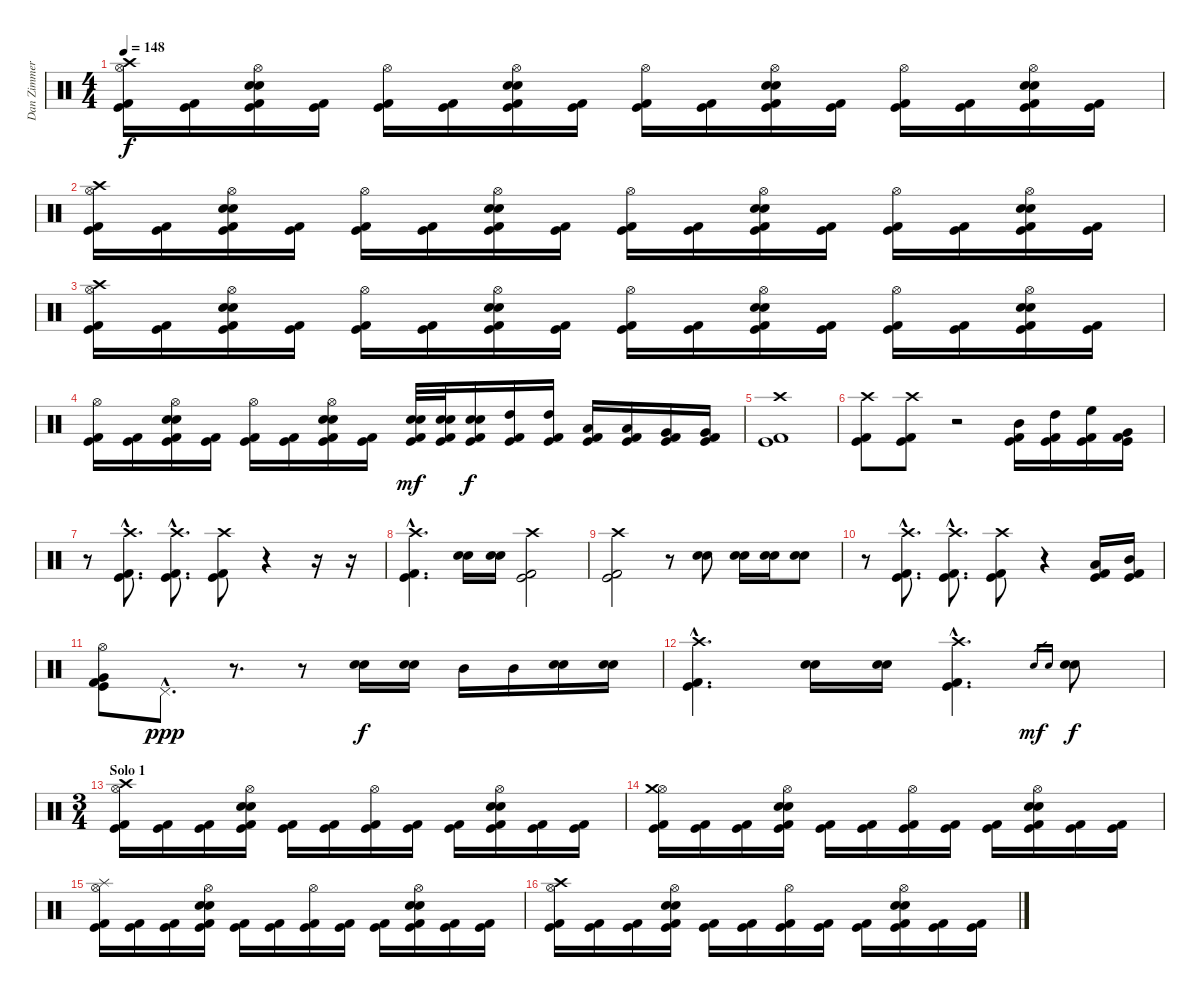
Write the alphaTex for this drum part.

\track ("Dan Zimmerman<Drum>" "Dan Zimmer") {instrument percussion}
\staff {score}
\articulation defaults
\ts (4 4)
\tempo 148
\clef neutral
\ks c
("Hi-Hat (open)" "Crash high (hit)" "Kick (hit) 2" "Kick (hit)").16{dy f} ("Kick (hit) 2" "Kick (hit)").16 ("Hi-Hat (open)" "Snare (hit) 2" "Electric Snare (hit)" "Kick (hit) 2" "Kick (hit)").16 ("Kick (hit) 2" "Kick (hit)").16 ("Hi-Hat (open)" "Kick (hit) 2" "Kick (hit)").16 ("Kick (hit) 2" "Kick (hit)").16 ("Hi-Hat (open)" "Snare (hit) 2" "Electric Snare (hit)" "Kick (hit) 2" "Kick (hit)").16 ("Kick (hit) 2" "Kick (hit)").16 ("Hi-Hat (open)" "Kick (hit) 2" "Kick (hit)").16 ("Kick (hit) 2" "Kick (hit)").16 ("Hi-Hat (open)" "Snare (hit) 2" "Electric Snare (hit)" "Kick (hit) 2" "Kick (hit)").16 ("Kick (hit) 2" "Kick (hit)").16 ("Hi-Hat (open)" "Kick (hit) 2" "Kick (hit)").16 ("Kick (hit) 2" "Kick (hit)").16 ("Hi-Hat (open)" "Snare (hit) 2" "Electric Snare (hit)" "Kick (hit) 2" "Kick (hit)").16 ("Kick (hit) 2" "Kick (hit)").16 |
("Hi-Hat (open)" "Crash high (hit)" "Kick (hit) 2" "Kick (hit)").16 ("Kick (hit) 2" "Kick (hit)").16 ("Hi-Hat (open)" "Snare (hit) 2" "Electric Snare (hit)" "Kick (hit) 2" "Kick (hit)").16 ("Kick (hit) 2" "Kick (hit)").16 ("Hi-Hat (open)" "Kick (hit) 2" "Kick (hit)").16 ("Kick (hit) 2" "Kick (hit)").16 ("Hi-Hat (open)" "Snare (hit) 2" "Electric Snare (hit)" "Kick (hit) 2" "Kick (hit)").16 ("Kick (hit) 2" "Kick (hit)").16 ("Hi-Hat (open)" "Kick (hit) 2" "Kick (hit)").16 ("Kick (hit) 2" "Kick (hit)").16 ("Hi-Hat (open)" "Snare (hit) 2" "Electric Snare (hit)" "Kick (hit) 2" "Kick (hit)").16 ("Kick (hit) 2" "Kick (hit)").16 ("Hi-Hat (open)" "Kick (hit) 2" "Kick (hit)").16 ("Kick (hit) 2" "Kick (hit)").16 ("Hi-Hat (open)" "Snare (hit) 2" "Electric Snare (hit)" "Kick (hit) 2" "Kick (hit)").16 ("Kick (hit) 2" "Kick (hit)").16 |
("Hi-Hat (open)" "Crash high (hit)" "Kick (hit) 2" "Kick (hit)").16 ("Kick (hit) 2" "Kick (hit)").16 ("Hi-Hat (open)" "Snare (hit) 2" "Electric Snare (hit)" "Kick (hit) 2" "Kick (hit)").16 ("Kick (hit) 2" "Kick (hit)").16 ("Hi-Hat (open)" "Kick (hit) 2" "Kick (hit)").16 ("Kick (hit) 2" "Kick (hit)").16 ("Hi-Hat (open)" "Snare (hit) 2" "Electric Snare (hit)" "Kick (hit) 2" "Kick (hit)").16 ("Kick (hit) 2" "Kick (hit)").16 ("Hi-Hat (open)" "Kick (hit) 2" "Kick (hit)").16 ("Kick (hit) 2" "Kick (hit)").16 ("Hi-Hat (open)" "Snare (hit) 2" "Electric Snare (hit)" "Kick (hit) 2" "Kick (hit)").16 ("Kick (hit) 2" "Kick (hit)").16 ("Hi-Hat (open)" "Kick (hit) 2" "Kick (hit)").16 ("Kick (hit) 2" "Kick (hit)").16 ("Hi-Hat (open)" "Snare (hit) 2" "Electric Snare (hit)" "Kick (hit) 2" "Kick (hit)").16 ("Kick (hit) 2" "Kick (hit)").16 |
("Hi-Hat (open)" "Kick (hit) 2" "Kick (hit)").16 ("Kick (hit) 2" "Kick (hit)").16 ("Hi-Hat (open)" "Snare (hit) 2" "Electric Snare (hit)" "Kick (hit) 2" "Kick (hit)").16 ("Kick (hit) 2" "Kick (hit)").16 ("Hi-Hat (open)" "Kick (hit) 2" "Kick (hit)").16 ("Kick (hit) 2" "Kick (hit)").16 ("Hi-Hat (open)" "Snare (hit) 2" "Electric Snare (hit)" "Kick (hit) 2" "Kick (hit)").16 ("Kick (hit) 2" "Kick (hit)").16 ("Snare (hit) 2" "Electric Snare (hit)" "Kick (hit) 2" "Kick (hit)").32{dy mf} ("Snare (hit) 2" "Electric Snare (hit)" "Kick (hit) 2" "Kick (hit)").32 ("Electric Snare (hit)" "Snare (hit) 2" "Kick (hit) 2" "Kick (hit)").16{dy f} ("High Tom (hit)" "Kick (hit) 2" "Kick (hit)").16 ("High Tom (hit)" "Kick (hit) 2" "Kick (hit)").16 ("Low Tom (hit)" "Kick (hit) 2" "Kick (hit)").16 ("Low Tom (hit)" "Kick (hit) 2" "Kick (hit)").16 ("Very Low Tom (hit)" "Kick (hit) 2" "Kick (hit)").16 ("Very Low Tom (hit)" "Kick (hit) 2" "Kick (hit)").16 |
("Crash high (hit)" "Kick (hit) 2" "Kick (hit)").1 |
("Crash high (hit)" "Kick (hit) 2" "Kick (hit)").8 ("Crash high (hit)" "Kick (hit) 2" "Kick (hit)").8 r.2 ("Mid Tom (hit)" "Kick (hit) 2" "Kick (hit)").16 ("High Tom (hit)" "Kick (hit) 2" "Kick (hit)").16 ("High Floor Tom (hit)" "Kick (hit) 2" "Kick (hit)").16 ("Very Low Tom (hit)" "Kick (hit) 2" "Kick (hit)").16 |
r.8 ("Crash high (hit)"{hac} "Kick (hit) 2"{hac} "Kick (hit)"{hac}).8{d} ("Crash high (hit)"{hac} "Kick (hit) 2"{hac} "Kick (hit)"{hac}).8{d} ("Crash high (hit)" "Kick (hit) 2" "Kick (hit)").8 r.4 r.16 r.16 |
("Crash high (hit)"{hac} "Kick (hit) 2"{hac} "Kick (hit)"{hac}).4{d} ("Snare (hit) 2" "Electric Snare (hit)").16 ("Snare (hit) 2" "Electric Snare (hit)").16 ("Crash high (hit)" "Kick (hit) 2" "Kick (hit)").2 |
("Crash high (hit)" "Kick (hit) 2" "Kick (hit)").2 r.8 ("Snare (hit) 2" "Electric Snare (hit)").8 ("Snare (hit) 2" "Electric Snare (hit)").16 ("Snare (hit) 2" "Electric Snare (hit)").16 ("Snare (hit) 2" "Electric Snare (hit)").8 |
r.8 ("Crash high (hit)"{hac} "Kick (hit) 2"{hac} "Kick (hit)"{hac}).8{d} ("Crash high (hit)"{hac} "Kick (hit) 2"{hac} "Kick (hit)"{hac}).8{d} ("Crash high (hit)" "Kick (hit) 2" "Kick (hit)").8 r.4 ("Low Tom (hit)" "Kick (hit) 2" "Kick (hit)").16 ("Mid Tom (hit)" "Kick (hit)" "Kick (hit) 2").16 |
("Hi-Hat (open)" "Very Low Tom (hit)" "Kick (hit) 2" "Kick (hit)").8 "Pedal Hi-Hat (hit)"{hac}.8{d dy ppp} r.8{d} r.8 ("Electric Snare (hit)" "Snare (hit) 2").16{dy f} ("Electric Snare (hit)" "Snare (hit) 2").16 "Mid Tom (hit)".16 "Mid Tom (hit)".16 ("Electric Snare (hit)" "Snare (hit) 2").16 ("Electric Snare (hit)" "Snare (hit) 2").16 |
("Crash high (hit)"{hac} "Kick (hit) 2"{hac} "Kick (hit)"{hac}).4{d} ("Snare (hit) 2" "Electric Snare (hit)").16 ("Snare (hit) 2" "Electric Snare (hit)").16 ("Crash high (hit)"{hac} "Kick (hit) 2"{hac} "Kick (hit)"{hac}).4{d} "Snare (hit) 2".16{gr dy mf} "Electric Snare (hit)".16{gr} ("Snare (hit) 2" "Electric Snare (hit)").8{dy f} |
\ts (3 4)
\section ("" "Solo 1")
("Hi-Hat (open)" "Crash high (hit)" "Kick (hit) 2" "Kick (hit)").16 ("Kick (hit) 2" "Kick (hit)").16 ("Kick (hit) 2" "Kick (hit)").16 ("Hi-Hat (open)" "Electric Snare (hit)" "Snare (hit) 2" "Kick (hit) 2" "Kick (hit)").16 ("Kick (hit) 2" "Kick (hit)").16 ("Kick (hit) 2" "Kick (hit)").16 ("Hi-Hat (open)" "Kick (hit) 2" "Kick (hit)").16 ("Kick (hit) 2" "Kick (hit)").16 ("Kick (hit) 2" "Kick (hit)").16 ("Hi-Hat (open)" "Electric Snare (hit)" "Snare (hit) 2" "Kick (hit) 2" "Kick (hit)").16 ("Kick (hit) 2" "Kick (hit)").16 ("Kick (hit) 2" "Kick (hit)").16 |
("Hi-Hat (open)" "Crash medium (hit)" "Kick (hit) 2" "Kick (hit)").16 ("Kick (hit) 2" "Kick (hit)").16 ("Kick (hit) 2" "Kick (hit)").16 ("Hi-Hat (open)" "Electric Snare (hit)" "Snare (hit) 2" "Kick (hit) 2" "Kick (hit)").16 ("Kick (hit) 2" "Kick (hit)").16 ("Kick (hit) 2" "Kick (hit)").16 ("Hi-Hat (open)" "Kick (hit) 2" "Kick (hit)").16 ("Kick (hit) 2" "Kick (hit)").16 ("Kick (hit) 2" "Kick (hit)").16 ("Hi-Hat (open)" "Electric Snare (hit)" "Snare (hit) 2" "Kick (hit) 2" "Kick (hit)").16 ("Kick (hit) 2" "Kick (hit)").16 ("Kick (hit) 2" "Kick (hit)").16 |
("Hi-Hat (open)" "Splash (hit)" "Kick (hit) 2" "Kick (hit)").16 ("Kick (hit) 2" "Kick (hit)").16 ("Kick (hit) 2" "Kick (hit)").16 ("Hi-Hat (open)" "Electric Snare (hit)" "Snare (hit) 2" "Kick (hit) 2" "Kick (hit)").16 ("Kick (hit) 2" "Kick (hit)").16 ("Kick (hit) 2" "Kick (hit)").16 ("Hi-Hat (open)" "Kick (hit) 2" "Kick (hit)").16 ("Kick (hit) 2" "Kick (hit)").16 ("Kick (hit) 2" "Kick (hit)").16 ("Hi-Hat (open)" "Electric Snare (hit)" "Snare (hit) 2" "Kick (hit) 2" "Kick (hit)").16 ("Kick (hit) 2" "Kick (hit)").16 ("Kick (hit) 2" "Kick (hit)").16 |
("Hi-Hat (open)" "Crash high (hit)" "Kick (hit) 2" "Kick (hit)").16 ("Kick (hit) 2" "Kick (hit)").16 ("Kick (hit) 2" "Kick (hit)").16 ("Hi-Hat (open)" "Electric Snare (hit)" "Snare (hit) 2" "Kick (hit) 2" "Kick (hit)").16 ("Kick (hit) 2" "Kick (hit)").16 ("Kick (hit) 2" "Kick (hit)").16 ("Hi-Hat (open)" "Kick (hit) 2" "Kick (hit)").16 ("Kick (hit) 2" "Kick (hit)").16 ("Kick (hit) 2" "Kick (hit)").16 ("Hi-Hat (open)" "Electric Snare (hit)" "Snare (hit) 2" "Kick (hit) 2" "Kick (hit)").16 ("Kick (hit) 2" "Kick (hit)").16 ("Kick (hit) 2" "Kick (hit)").16
